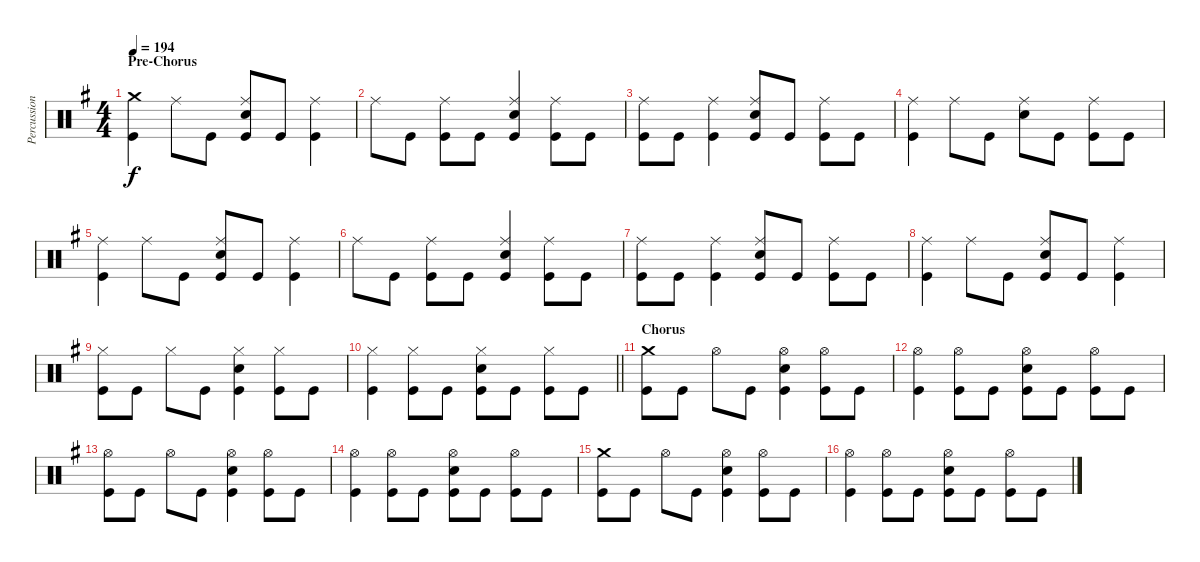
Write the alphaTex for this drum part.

\track ("Percussion" "Percussion") {instrument percussion}
\staff {score}
\articulation defaults
\ts (4 4)
\section ("" "Pre-Chorus")
\tempo 194
\clef neutral
\ks g
("Crash medium (hit)" "Kick (hit)").4{dy f} "Ride (middle)".8 "Kick (hit)".8 ("Ride (middle)" "Electric Snare (hit)" "Kick (hit)").8 "Kick (hit)".8 ("Ride (middle)" "Kick (hit)").4 |
"Ride (middle)".8 "Kick (hit)".8 ("Ride (middle)" "Kick (hit)").8 "Kick (hit)".8 ("Ride (middle)" "Electric Snare (hit)" "Kick (hit)").4 ("Ride (middle)" "Kick (hit)").8 "Kick (hit)".8 |
("Ride (middle)" "Kick (hit)").8 "Kick (hit)".8 ("Ride (middle)" "Kick (hit)").4 ("Ride (middle)" "Electric Snare (hit)" "Kick (hit)").8 "Kick (hit)".8 ("Ride (middle)" "Kick (hit)").8 "Kick (hit)".8 |
("Ride (middle)" "Kick (hit)").4 "Ride (middle)".8 "Kick (hit)".8 ("Ride (middle)" "Electric Snare (hit)").8 "Kick (hit)".8 ("Ride (middle)" "Kick (hit)").8 "Kick (hit)".8 |
("Ride (middle)" "Kick (hit)").4 "Ride (middle)".8 "Kick (hit)".8 ("Ride (middle)" "Electric Snare (hit)" "Kick (hit)").8 "Kick (hit)".8 ("Ride (middle)" "Kick (hit)").4 |
"Ride (middle)".8 "Kick (hit)".8 ("Ride (middle)" "Kick (hit)").8 "Kick (hit)".8 ("Ride (middle)" "Electric Snare (hit)" "Kick (hit)").4 ("Ride (middle)" "Kick (hit)").8 "Kick (hit)".8 |
("Ride (middle)" "Kick (hit)").8 "Kick (hit)".8 ("Ride (middle)" "Kick (hit)").4 ("Ride (middle)" "Electric Snare (hit)" "Kick (hit)").8 "Kick (hit)".8 ("Ride (middle)" "Kick (hit)").8 "Kick (hit)".8 |
("Ride (middle)" "Kick (hit)").4 "Ride (middle)".8 "Kick (hit)".8 ("Ride (middle)" "Electric Snare (hit)" "Kick (hit)").8 "Kick (hit)".8 ("Ride (middle)" "Kick (hit)").4 |
("Hi-Hat (closed)" "Kick (hit)").8 "Kick (hit)".8 "Hi-Hat (closed)".8 "Kick (hit)".8 ("Hi-Hat (closed)" "Electric Snare (hit)" "Kick (hit)").4 ("Hi-Hat (closed)" "Kick (hit)").8 "Kick (hit)".8 |
\barLineRight lightlight
("Hi-Hat (closed)" "Kick (hit)").4 ("Hi-Hat (closed)" "Kick (hit)").8 "Kick (hit)".8 ("Hi-Hat (closed)" "Electric Snare (hit)" "Kick (hit)").8 "Kick (hit)".8 ("Hi-Hat (closed)" "Kick (hit)").8 "Kick (hit)".8 |
\section ("" "Chorus")
("Crash medium (hit)" "Kick (hit)").8 "Kick (hit)".8 "Hi-Hat (open)".8 "Kick (hit)".8 ("Hi-Hat (open)" "Electric Snare (hit)" "Kick (hit)").4 ("Hi-Hat (open)" "Kick (hit)").8 "Kick (hit)".8 |
("Hi-Hat (open)" "Kick (hit)").4 ("Hi-Hat (open)" "Kick (hit)").8 "Kick (hit)".8 ("Hi-Hat (open)" "Electric Snare (hit)" "Kick (hit)").8 "Kick (hit)".8 ("Hi-Hat (open)" "Kick (hit)").8 "Kick (hit)".8 |
("Hi-Hat (open)" "Kick (hit)").8 "Kick (hit)".8 "Hi-Hat (open)".8 "Kick (hit)".8 ("Hi-Hat (open)" "Electric Snare (hit)" "Kick (hit)").4 ("Hi-Hat (open)" "Kick (hit)").8 "Kick (hit)".8 |
("Hi-Hat (open)" "Kick (hit)").4 ("Hi-Hat (open)" "Kick (hit)").8 "Kick (hit)".8 ("Hi-Hat (open)" "Electric Snare (hit)" "Kick (hit)").8 "Kick (hit)".8 ("Hi-Hat (open)" "Kick (hit)").8 "Kick (hit)".8 |
("Crash medium (hit)" "Kick (hit)").8 "Kick (hit)".8 "Hi-Hat (open)".8 "Kick (hit)".8 ("Hi-Hat (open)" "Electric Snare (hit)" "Kick (hit)").4 ("Hi-Hat (open)" "Kick (hit)").8 "Kick (hit)".8 |
("Hi-Hat (open)" "Kick (hit)").4 ("Hi-Hat (open)" "Kick (hit)").8 "Kick (hit)".8 ("Hi-Hat (open)" "Electric Snare (hit)" "Kick (hit)").8 "Kick (hit)".8 ("Hi-Hat (open)" "Kick (hit)").8 "Kick (hit)".8
